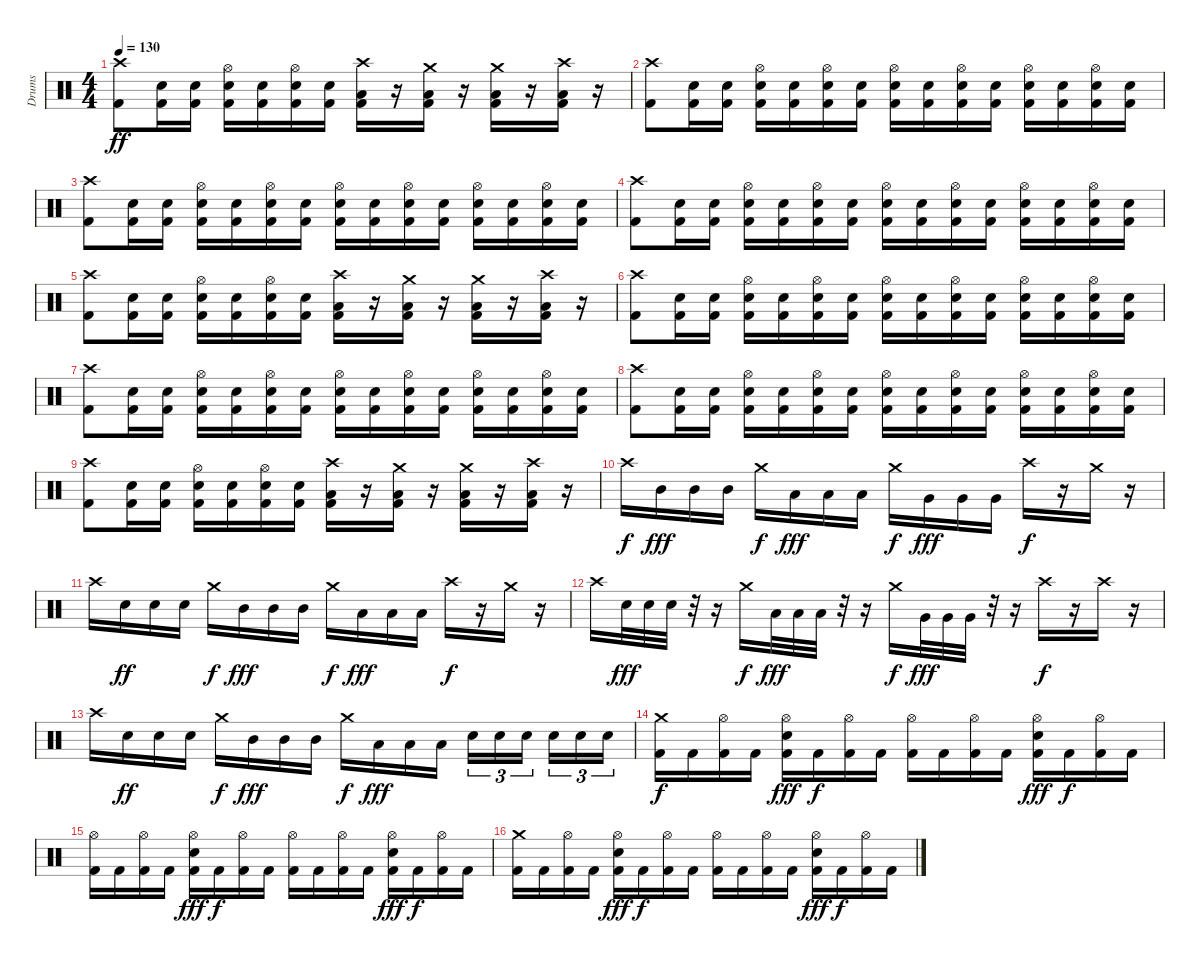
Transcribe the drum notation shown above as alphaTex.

\track ("Drums" "Drums") {instrument percussion}
\staff {score}
\articulation defaults
\ts (4 4)
\tempo 130
\clef neutral
\ks c
("Crash high (hit)" "Kick (hit) 2").8{dy ff} ("Snare (hit) 2" "Kick (hit) 2").16 ("Snare (hit) 2" "Kick (hit) 2").16 ("Snare (hit) 2" "Kick (hit) 2" "Hi-Hat (open)").16 ("Snare (hit) 2" "Kick (hit) 2").16 ("Snare (hit) 2" "Kick (hit) 2" "Hi-Hat (open)").16 ("Snare (hit) 2" "Kick (hit) 2").16 ("Crash high (hit)" "Kick (hit) 2" "Low Tom (hit)").16 r.16 ("Crash medium (hit)" "Kick (hit) 2" "Low Tom (hit)").16 r.16 ("Crash medium (hit)" "Kick (hit) 2" "Low Tom (hit)").16 r.16 ("Crash high (hit)" "Kick (hit) 2" "Low Tom (hit)").16 r.16 |
("Crash high (hit)" "Kick (hit) 2").8 ("Snare (hit) 2" "Kick (hit) 2").16 ("Snare (hit) 2" "Kick (hit) 2").16 ("Snare (hit) 2" "Kick (hit) 2" "Hi-Hat (open)").16 ("Snare (hit) 2" "Kick (hit) 2").16 ("Snare (hit) 2" "Kick (hit) 2" "Hi-Hat (open)").16 ("Snare (hit) 2" "Kick (hit) 2").16 ("Snare (hit) 2" "Kick (hit) 2" "Hi-Hat (open)").16 ("Snare (hit) 2" "Kick (hit) 2").16 ("Snare (hit) 2" "Kick (hit) 2" "Hi-Hat (open)").16 ("Snare (hit) 2" "Kick (hit) 2").16 ("Snare (hit) 2" "Kick (hit) 2" "Hi-Hat (open)").16 ("Snare (hit) 2" "Kick (hit) 2").16 ("Snare (hit) 2" "Kick (hit) 2" "Hi-Hat (open)").16 ("Snare (hit) 2" "Kick (hit) 2").16 |
("Crash high (hit)" "Kick (hit) 2").8 ("Snare (hit) 2" "Kick (hit) 2").16 ("Snare (hit) 2" "Kick (hit) 2").16 ("Snare (hit) 2" "Kick (hit) 2" "Hi-Hat (open)").16 ("Snare (hit) 2" "Kick (hit) 2").16 ("Snare (hit) 2" "Kick (hit) 2" "Hi-Hat (open)").16 ("Snare (hit) 2" "Kick (hit) 2").16 ("Snare (hit) 2" "Kick (hit) 2" "Hi-Hat (open)").16 ("Snare (hit) 2" "Kick (hit) 2").16 ("Snare (hit) 2" "Kick (hit) 2" "Hi-Hat (open)").16 ("Snare (hit) 2" "Kick (hit) 2").16 ("Snare (hit) 2" "Kick (hit) 2" "Hi-Hat (open)").16 ("Snare (hit) 2" "Kick (hit) 2").16 ("Snare (hit) 2" "Kick (hit) 2" "Hi-Hat (open)").16 ("Snare (hit) 2" "Kick (hit) 2").16 |
("Crash high (hit)" "Kick (hit) 2").8 ("Snare (hit) 2" "Kick (hit) 2").16 ("Snare (hit) 2" "Kick (hit) 2").16 ("Snare (hit) 2" "Kick (hit) 2" "Hi-Hat (open)").16 ("Snare (hit) 2" "Kick (hit) 2").16 ("Snare (hit) 2" "Kick (hit) 2" "Hi-Hat (open)").16 ("Snare (hit) 2" "Kick (hit) 2").16 ("Snare (hit) 2" "Kick (hit) 2" "Hi-Hat (open)").16 ("Snare (hit) 2" "Kick (hit) 2").16 ("Snare (hit) 2" "Kick (hit) 2" "Hi-Hat (open)").16 ("Snare (hit) 2" "Kick (hit) 2").16 ("Snare (hit) 2" "Kick (hit) 2" "Hi-Hat (open)").16 ("Snare (hit) 2" "Kick (hit) 2").16 ("Snare (hit) 2" "Kick (hit) 2" "Hi-Hat (open)").16 ("Snare (hit) 2" "Kick (hit) 2").16 |
("Crash high (hit)" "Kick (hit) 2").8 ("Snare (hit) 2" "Kick (hit) 2").16 ("Snare (hit) 2" "Kick (hit) 2").16 ("Snare (hit) 2" "Kick (hit) 2" "Hi-Hat (open)").16 ("Snare (hit) 2" "Kick (hit) 2").16 ("Snare (hit) 2" "Kick (hit) 2" "Hi-Hat (open)").16 ("Snare (hit) 2" "Kick (hit) 2").16 ("Crash high (hit)" "Kick (hit) 2" "Low Tom (hit)").16 r.16 ("Crash medium (hit)" "Kick (hit) 2" "Low Tom (hit)").16 r.16 ("Crash medium (hit)" "Kick (hit) 2" "Low Tom (hit)").16 r.16 ("Crash high (hit)" "Kick (hit) 2" "Low Tom (hit)").16 r.16 |
("Crash high (hit)" "Kick (hit) 2").8 ("Snare (hit) 2" "Kick (hit) 2").16 ("Snare (hit) 2" "Kick (hit) 2").16 ("Snare (hit) 2" "Kick (hit) 2" "Hi-Hat (open)").16 ("Snare (hit) 2" "Kick (hit) 2").16 ("Snare (hit) 2" "Kick (hit) 2" "Hi-Hat (open)").16 ("Snare (hit) 2" "Kick (hit) 2").16 ("Snare (hit) 2" "Kick (hit) 2" "Hi-Hat (open)").16 ("Snare (hit) 2" "Kick (hit) 2").16 ("Snare (hit) 2" "Kick (hit) 2" "Hi-Hat (open)").16 ("Snare (hit) 2" "Kick (hit) 2").16 ("Snare (hit) 2" "Kick (hit) 2" "Hi-Hat (open)").16 ("Snare (hit) 2" "Kick (hit) 2").16 ("Snare (hit) 2" "Kick (hit) 2" "Hi-Hat (open)").16 ("Snare (hit) 2" "Kick (hit) 2").16 |
("Crash high (hit)" "Kick (hit) 2").8 ("Snare (hit) 2" "Kick (hit) 2").16 ("Snare (hit) 2" "Kick (hit) 2").16 ("Snare (hit) 2" "Kick (hit) 2" "Hi-Hat (open)").16 ("Snare (hit) 2" "Kick (hit) 2").16 ("Snare (hit) 2" "Kick (hit) 2" "Hi-Hat (open)").16 ("Snare (hit) 2" "Kick (hit) 2").16 ("Snare (hit) 2" "Kick (hit) 2" "Hi-Hat (open)").16 ("Snare (hit) 2" "Kick (hit) 2").16 ("Snare (hit) 2" "Kick (hit) 2" "Hi-Hat (open)").16 ("Snare (hit) 2" "Kick (hit) 2").16 ("Snare (hit) 2" "Kick (hit) 2" "Hi-Hat (open)").16 ("Snare (hit) 2" "Kick (hit) 2").16 ("Snare (hit) 2" "Kick (hit) 2" "Hi-Hat (open)").16 ("Snare (hit) 2" "Kick (hit) 2").16 |
("Crash high (hit)" "Kick (hit) 2").8 ("Snare (hit) 2" "Kick (hit) 2").16 ("Snare (hit) 2" "Kick (hit) 2").16 ("Snare (hit) 2" "Kick (hit) 2" "Hi-Hat (open)").16 ("Snare (hit) 2" "Kick (hit) 2").16 ("Snare (hit) 2" "Kick (hit) 2" "Hi-Hat (open)").16 ("Snare (hit) 2" "Kick (hit) 2").16 ("Snare (hit) 2" "Kick (hit) 2" "Hi-Hat (open)").16 ("Snare (hit) 2" "Kick (hit) 2").16 ("Snare (hit) 2" "Kick (hit) 2" "Hi-Hat (open)").16 ("Snare (hit) 2" "Kick (hit) 2").16 ("Snare (hit) 2" "Kick (hit) 2" "Hi-Hat (open)").16 ("Snare (hit) 2" "Kick (hit) 2").16 ("Snare (hit) 2" "Kick (hit) 2" "Hi-Hat (open)").16 ("Snare (hit) 2" "Kick (hit) 2").16 |
("Crash high (hit)" "Kick (hit) 2").8 ("Snare (hit) 2" "Kick (hit) 2").16 ("Snare (hit) 2" "Kick (hit) 2").16 ("Snare (hit) 2" "Kick (hit) 2" "Hi-Hat (open)").16 ("Snare (hit) 2" "Kick (hit) 2").16 ("Snare (hit) 2" "Kick (hit) 2" "Hi-Hat (open)").16 ("Snare (hit) 2" "Kick (hit) 2").16 ("Crash high (hit)" "Kick (hit) 2" "Low Tom (hit)").16 r.16 ("Crash medium (hit)" "Kick (hit) 2" "Low Tom (hit)").16 r.16 ("Crash medium (hit)" "Kick (hit) 2" "Low Tom (hit)").16 r.16 ("Crash high (hit)" "Kick (hit) 2" "Low Tom (hit)").16 r.16 |
"Crash high (hit)".16{dy f} "Mid Tom (hit)".16{dy fff} "Mid Tom (hit)".16 "Mid Tom (hit)".16 "Crash medium (hit)".16{dy f} "Low Tom (hit)".16{dy fff} "Low Tom (hit)".16 "Low Tom (hit)".16 "Crash medium (hit)".16{dy f} "Very Low Tom (hit)".16{dy fff} "Very Low Tom (hit)".16 "Very Low Tom (hit)".16 "Crash high (hit)".16{dy f} r.16 "Crash medium (hit)".16 r.16 |
"Crash high (hit)".16 "Snare (hit) 2".16{dy ff} "Snare (hit) 2".16 "Snare (hit) 2".16 "Crash medium (hit)".16{dy f} "Mid Tom (hit)".16{dy fff} "Mid Tom (hit)".16 "Mid Tom (hit)".16 "Crash medium (hit)".16{dy f} "Low Tom (hit)".16{dy fff} "Low Tom (hit)".16 "Low Tom (hit)".16 "Crash high (hit)".16{dy f} r.16 "Crash medium (hit)".16 r.16 |
"Crash high (hit)".16 "Snare (hit) 2".32{dy fff} "Snare (hit) 2".32 "Snare (hit) 2".32 r.32 r.16 "Crash medium (hit)".16{dy f} "Low Tom (hit)".32{dy fff} "Low Tom (hit)".32 "Low Tom (hit)".32 r.32 r.16 "Crash medium (hit)".16{dy f} "Very Low Tom (hit)".32{dy fff} "Very Low Tom (hit)".32 "Very Low Tom (hit)".32 r.32 r.16 "Crash high (hit)".16{dy f} r.16 "Crash high (hit)".16 r.16 |
"Crash high (hit)".16 "Snare (hit) 2".16{dy ff} "Snare (hit) 2".16 "Snare (hit) 2".16 "Crash medium (hit)".16{dy f} "Mid Tom (hit)".16{dy fff} "Mid Tom (hit)".16 "Mid Tom (hit)".16 "Crash medium (hit)".16{dy f} "Low Tom (hit)".16{dy fff} "Low Tom (hit)".16 "Low Tom (hit)".16 "Snare (hit) 2".16{tu (3 2)} "Snare (hit) 2".16{tu (3 2)} "Snare (hit) 2".16{tu (3 2) beam splitsecondary} "Snare (hit) 2".16{tu (3 2)} "Snare (hit) 2".16{tu (3 2)} "Snare (hit) 2".16{tu (3 2)} |
("Kick (hit) 2" "Crash medium (hit)").16{dy f} "Kick (hit) 2".16 ("Kick (hit) 2" "Hi-Hat (open)").16 "Kick (hit) 2".16 ("Kick (hit) 2" "Hi-Hat (open)" "Snare (hit) 2").16{dy fff} "Kick (hit) 2".16{dy f} ("Kick (hit) 2" "Hi-Hat (open)").16 "Kick (hit) 2".16 ("Kick (hit) 2" "Hi-Hat (open)").16 "Kick (hit) 2".16 ("Kick (hit) 2" "Hi-Hat (open)").16 "Kick (hit) 2".16 ("Kick (hit) 2" "Hi-Hat (open)" "Snare (hit) 2").16{dy fff} "Kick (hit) 2".16{dy f} ("Kick (hit) 2" "Hi-Hat (open)").16 "Kick (hit) 2".16 |
("Kick (hit) 2" "Hi-Hat (open)").16 "Kick (hit) 2".16 ("Kick (hit) 2" "Hi-Hat (open)").16 "Kick (hit) 2".16 ("Kick (hit) 2" "Hi-Hat (open)" "Snare (hit) 2").16{dy fff} "Kick (hit) 2".16{dy f} ("Kick (hit) 2" "Hi-Hat (open)").16 "Kick (hit) 2".16 ("Kick (hit) 2" "Hi-Hat (open)").16 "Kick (hit) 2".16 ("Kick (hit) 2" "Hi-Hat (open)").16 "Kick (hit) 2".16 ("Kick (hit) 2" "Hi-Hat (open)" "Snare (hit) 2").16{dy fff} "Kick (hit) 2".16{dy f} ("Kick (hit) 2" "Hi-Hat (open)").16 "Kick (hit) 2".16 |
("Kick (hit) 2" "Crash medium (hit)").16 "Kick (hit) 2".16 ("Kick (hit) 2" "Hi-Hat (open)").16 "Kick (hit) 2".16 ("Kick (hit) 2" "Hi-Hat (open)" "Snare (hit) 2").16{dy fff} "Kick (hit) 2".16{dy f} ("Kick (hit) 2" "Hi-Hat (open)").16 "Kick (hit) 2".16 ("Kick (hit) 2" "Hi-Hat (open)").16 "Kick (hit) 2".16 ("Kick (hit) 2" "Hi-Hat (open)").16 "Kick (hit) 2".16 ("Kick (hit) 2" "Hi-Hat (open)" "Snare (hit) 2").16{dy fff} "Kick (hit) 2".16{dy f} ("Kick (hit) 2" "Hi-Hat (open)").16 "Kick (hit) 2".16
